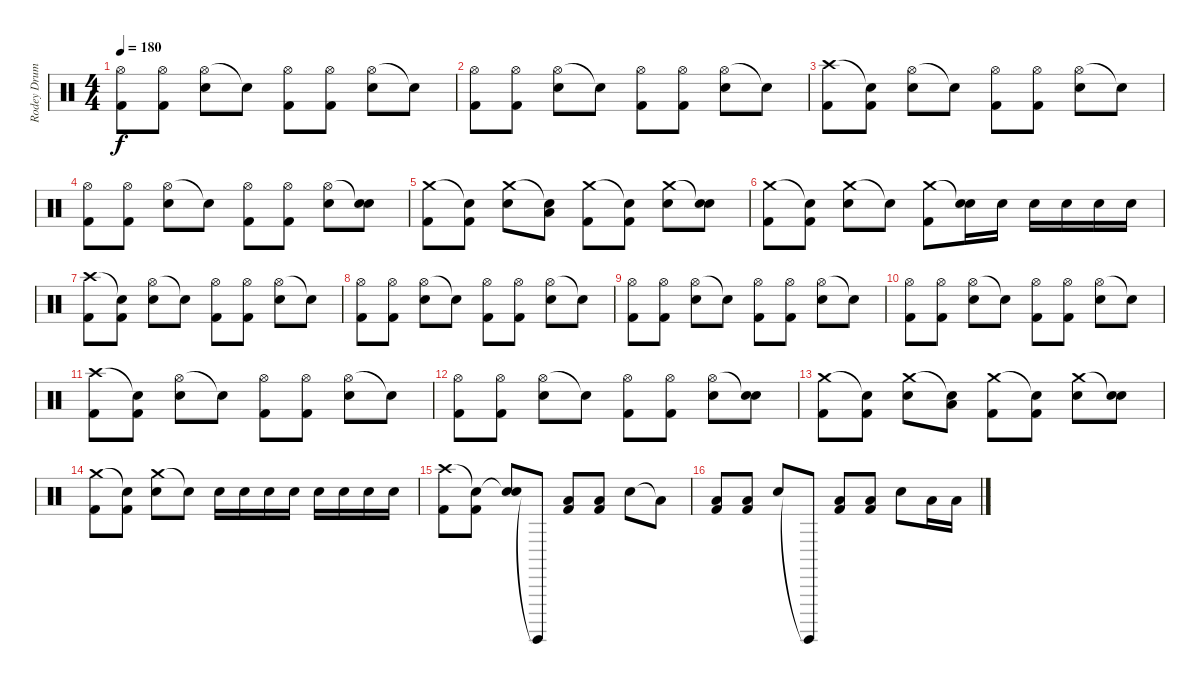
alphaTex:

\track ("Rodey Drums" "Rodey Drum") {instrument percussion}
\staff {score}
\articulation defaults
\ts (4 4)
\tempo 180
\clef neutral
\ks c
("Hi-Hat (open)" "Kick (hit) 2").8{dy f} ("Hi-Hat (open)" "Kick (hit) 2").8 ("Hi-Hat (open)" "Electric Snare (hit)").8 "Snare (hit)"{t}.8 ("Hi-Hat (open)" "Kick (hit) 2").8 ("Hi-Hat (open)" "Kick (hit) 2").8 ("Hi-Hat (open)" "Electric Snare (hit)").8 "Snare (hit)"{t}.8 |
("Hi-Hat (open)" "Kick (hit) 2").8 ("Hi-Hat (open)" "Kick (hit) 2").8 ("Hi-Hat (open)" "Electric Snare (hit)").8 "Snare (hit)"{t}.8 ("Hi-Hat (open)" "Kick (hit) 2").8 ("Hi-Hat (open)" "Kick (hit) 2").8 ("Hi-Hat (open)" "Electric Snare (hit)").8 "Snare (hit)"{t}.8 |
("Crash high (hit)" "Kick (hit) 2").8 ("Snare (hit)"{t} "Kick (hit) 2").8 ("Hi-Hat (open)" "Electric Snare (hit)").8 "Snare (hit)"{t}.8 ("Hi-Hat (open)" "Kick (hit) 2").8 ("Hi-Hat (open)" "Kick (hit) 2").8 ("Hi-Hat (open)" "Electric Snare (hit)").8 "Snare (hit)"{t}.8 |
("Hi-Hat (open)" "Kick (hit) 2").8 ("Hi-Hat (open)" "Kick (hit) 2").8 ("Hi-Hat (open)" "Electric Snare (hit)").8 "Snare (hit)"{t}.8 ("Hi-Hat (open)" "Kick (hit) 2").8 ("Hi-Hat (open)" "Kick (hit) 2").8 ("Hi-Hat (open)" "Electric Snare (hit)").8 ("Snare (hit)"{t} "Electric Snare (hit)").8 |
("Crash medium (hit)" "Kick (hit) 2").8 ("Snare (hit)"{t} "Kick (hit) 2").8 ("Crash medium (hit)" "Electric Snare (hit)").8 ("Snare (hit)"{t} "Low Floor Tom (hit)").8 ("Crash medium (hit)" "Kick (hit) 2").8 ("Snare (hit)"{t} "Kick (hit) 2").8 ("Crash medium (hit)" "Electric Snare (hit)").8 ("Snare (hit)"{t} "Electric Snare (hit)").8 |
("Crash medium (hit)" "Kick (hit) 2").8 ("Snare (hit)"{t} "Kick (hit) 2").8 ("Crash medium (hit)" "Electric Snare (hit)").8 "Snare (hit)"{t}.8 ("Crash medium (hit)" "Kick (hit) 2").8 ("Snare (hit)"{t} "Electric Snare (hit)").16 "Electric Snare (hit)".16 "Electric Snare (hit)".16 "Electric Snare (hit)".16 "Electric Snare (hit)".16 "Electric Snare (hit)".16 |
("Crash high (hit)" "Kick (hit) 2").8 ("Snare (hit)"{t} "Kick (hit) 2").8 ("Hi-Hat (open)" "Electric Snare (hit)").8 "Snare (hit)"{t}.8 ("Hi-Hat (open)" "Kick (hit) 2").8 ("Hi-Hat (open)" "Kick (hit) 2").8 ("Hi-Hat (open)" "Electric Snare (hit)").8 "Snare (hit)"{t}.8 |
("Hi-Hat (open)" "Kick (hit) 2").8 ("Hi-Hat (open)" "Kick (hit) 2").8 ("Hi-Hat (open)" "Electric Snare (hit)").8 "Snare (hit)"{t}.8 ("Hi-Hat (open)" "Kick (hit) 2").8 ("Hi-Hat (open)" "Kick (hit) 2").8 ("Hi-Hat (open)" "Electric Snare (hit)").8 "Snare (hit)"{t}.8 |
("Hi-Hat (open)" "Kick (hit) 2").8 ("Hi-Hat (open)" "Kick (hit) 2").8 ("Hi-Hat (open)" "Electric Snare (hit)").8 "Snare (hit)"{t}.8 ("Hi-Hat (open)" "Kick (hit) 2").8 ("Hi-Hat (open)" "Kick (hit) 2").8 ("Hi-Hat (open)" "Electric Snare (hit)").8 "Snare (hit)"{t}.8 |
("Hi-Hat (open)" "Kick (hit) 2").8 ("Hi-Hat (open)" "Kick (hit) 2").8 ("Hi-Hat (open)" "Electric Snare (hit)").8 "Snare (hit)"{t}.8 ("Hi-Hat (open)" "Kick (hit) 2").8 ("Hi-Hat (open)" "Kick (hit) 2").8 ("Hi-Hat (open)" "Electric Snare (hit)").8 "Snare (hit)"{t}.8 |
("Crash high (hit)" "Kick (hit) 2").8 ("Snare (hit)"{t} "Kick (hit) 2").8 ("Hi-Hat (open)" "Electric Snare (hit)").8 "Snare (hit)"{t}.8 ("Hi-Hat (open)" "Kick (hit) 2").8 ("Hi-Hat (open)" "Kick (hit) 2").8 ("Hi-Hat (open)" "Electric Snare (hit)").8 "Snare (hit)"{t}.8 |
("Hi-Hat (open)" "Kick (hit) 2").8 ("Hi-Hat (open)" "Kick (hit) 2").8 ("Hi-Hat (open)" "Electric Snare (hit)").8 "Snare (hit)"{t}.8 ("Hi-Hat (open)" "Kick (hit) 2").8 ("Hi-Hat (open)" "Kick (hit) 2").8 ("Hi-Hat (open)" "Electric Snare (hit)").8 ("Snare (hit)"{t} "Electric Snare (hit)").8 |
("Crash medium (hit)" "Kick (hit) 2").8 ("Snare (hit)"{t} "Kick (hit) 2").8 ("Crash medium (hit)" "Electric Snare (hit)").8 ("Snare (hit)"{t} "Low Floor Tom (hit)").8 ("Crash medium (hit)" "Kick (hit) 2").8 ("Snare (hit)"{t} "Kick (hit) 2").8 ("Crash medium (hit)" "Electric Snare (hit)").8 ("Snare (hit)"{t} "Electric Snare (hit)").8 |
("Crash medium (hit)" "Kick (hit) 2").8 ("Snare (hit)"{t} "Kick (hit) 2").8 ("Crash medium (hit)" "Electric Snare (hit)").8 "Snare (hit)"{t}.8 "Electric Snare (hit)".16 "Electric Snare (hit)".16 "Electric Snare (hit)".16 "Electric Snare (hit)".16 "Electric Snare (hit)".16 "Electric Snare (hit)".16 "Electric Snare (hit)".16 "Electric Snare (hit)".16 |
("Crash high (hit)" "Kick (hit) 2").8 ("Snare (hit)"{t} "Kick (hit) 2").8 ("Snare (hit)"{t} "Electric Snare (hit)").8 "Surdo (hit)"{t}.8 ("Low Tom (hit)" "Kick (hit) 2").8 ("Low Tom (hit)" "Kick (hit) 2").8 "Electric Snare (hit)".8 "Low Floor Tom (hit)"{t}.8 |
("Low Tom (hit)" "Kick (hit) 2").8 ("Low Tom (hit)" "Kick (hit) 2").8 "Electric Snare (hit)".8 "Surdo (hit)"{t}.8 ("Low Tom (hit)" "Kick (hit) 2").8 ("Low Tom (hit)" "Kick (hit) 2").8 "Electric Snare (hit)".8 "Low Floor Tom (hit)".16 "Low Tom (hit)".16
